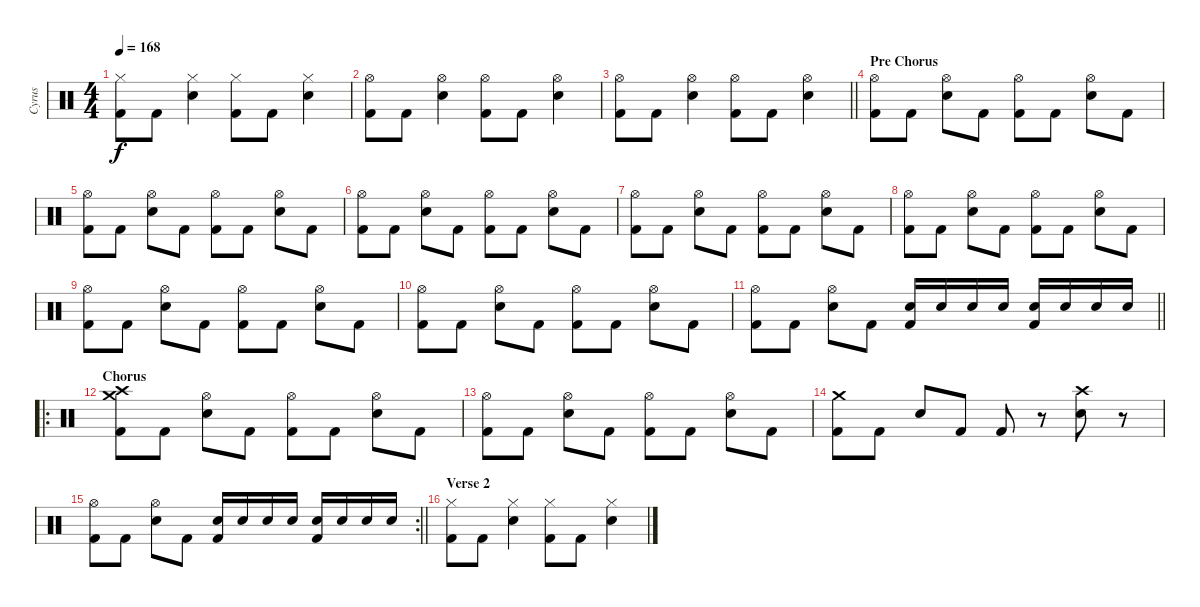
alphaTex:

\track ("Cyrus" "Cyrus") {instrument percussion}
\staff {score}
\articulation defaults
\ts (4 4)
\tempo 168
\clef neutral
\ks c
("Hi-Hat (closed)" "Kick (hit) 2").8{dy f} "Kick (hit) 2".8 ("Hi-Hat (closed)" "Snare (hit) 2").4 ("Hi-Hat (closed)" "Kick (hit) 2").8 "Kick (hit) 2".8 ("Hi-Hat (closed)" "Snare (hit) 2").4 |
("Hi-Hat (open)" "Kick (hit) 2").8 "Kick (hit) 2".8 ("Hi-Hat (open)" "Snare (hit) 2").4 ("Hi-Hat (open)" "Kick (hit) 2").8 "Kick (hit) 2".8 ("Hi-Hat (open)" "Snare (hit) 2").4 |
\barLineRight lightlight
("Hi-Hat (open)" "Kick (hit) 2").8 "Kick (hit) 2".8 ("Hi-Hat (open)" "Snare (hit) 2").4 ("Hi-Hat (open)" "Kick (hit) 2").8 "Kick (hit) 2".8 ("Hi-Hat (open)" "Snare (hit) 2").4 |
\section ("" "Pre Chorus")
("Hi-Hat (open)" "Kick (hit) 2").8 "Kick (hit) 2".8 ("Hi-Hat (open)" "Snare (hit) 2").8 "Kick (hit) 2".8 ("Hi-Hat (open)" "Kick (hit) 2").8 "Kick (hit) 2".8 ("Hi-Hat (open)" "Snare (hit) 2").8 "Kick (hit) 2".8 |
("Hi-Hat (open)" "Kick (hit) 2").8 "Kick (hit) 2".8 ("Hi-Hat (open)" "Snare (hit) 2").8 "Kick (hit) 2".8 ("Hi-Hat (open)" "Kick (hit) 2").8 "Kick (hit) 2".8 ("Hi-Hat (open)" "Snare (hit) 2").8 "Kick (hit) 2".8 |
("Hi-Hat (open)" "Kick (hit) 2").8 "Kick (hit) 2".8 ("Hi-Hat (open)" "Snare (hit) 2").8 "Kick (hit) 2".8 ("Hi-Hat (open)" "Kick (hit) 2").8 "Kick (hit) 2".8 ("Hi-Hat (open)" "Snare (hit) 2").8 "Kick (hit) 2".8 |
("Hi-Hat (open)" "Kick (hit) 2").8 "Kick (hit) 2".8 ("Hi-Hat (open)" "Snare (hit) 2").8 "Kick (hit) 2".8 ("Hi-Hat (open)" "Kick (hit) 2").8 "Kick (hit) 2".8 ("Hi-Hat (open)" "Snare (hit) 2").8 "Kick (hit) 2".8 |
("Hi-Hat (open)" "Kick (hit) 2").8 "Kick (hit) 2".8 ("Hi-Hat (open)" "Snare (hit) 2").8 "Kick (hit) 2".8 ("Hi-Hat (open)" "Kick (hit) 2").8 "Kick (hit) 2".8 ("Hi-Hat (open)" "Snare (hit) 2").8 "Kick (hit) 2".8 |
("Hi-Hat (open)" "Kick (hit) 2").8 "Kick (hit) 2".8 ("Hi-Hat (open)" "Snare (hit) 2").8 "Kick (hit) 2".8 ("Hi-Hat (open)" "Kick (hit) 2").8 "Kick (hit) 2".8 ("Hi-Hat (open)" "Snare (hit) 2").8 "Kick (hit) 2".8 |
("Hi-Hat (open)" "Kick (hit) 2").8 "Kick (hit) 2".8 ("Hi-Hat (open)" "Snare (hit) 2").8 "Kick (hit) 2".8 ("Hi-Hat (open)" "Kick (hit) 2").8 "Kick (hit) 2".8 ("Hi-Hat (open)" "Snare (hit) 2").8 "Kick (hit) 2".8 |
\barLineRight lightlight
("Hi-Hat (open)" "Kick (hit) 2").8 "Kick (hit) 2".8 ("Hi-Hat (open)" "Snare (hit) 2").8 "Kick (hit) 2".8 ("Snare (hit) 2" "Kick (hit) 2").16 "Snare (hit) 2".16 "Snare (hit) 2".16 "Snare (hit) 2".16 ("Snare (hit) 2" "Kick (hit) 2").16 "Snare (hit) 2".16 "Snare (hit) 2".16 "Snare (hit) 2".16 |
\ro
\section ("" "Chorus")
("Crash medium (hit)" "Crash high (hit)" "Kick (hit) 2").8 "Kick (hit) 2".8 ("Hi-Hat (open)" "Snare (hit) 2").8 "Kick (hit) 2".8 ("Hi-Hat (open)" "Kick (hit) 2").8 "Kick (hit) 2".8 ("Hi-Hat (open)" "Snare (hit) 2").8 "Kick (hit) 2".8 |
("Hi-Hat (open)" "Kick (hit) 2").8 "Kick (hit) 2".8 ("Hi-Hat (open)" "Snare (hit) 2").8 "Kick (hit) 2".8 ("Hi-Hat (open)" "Kick (hit) 2").8 "Kick (hit) 2".8 ("Hi-Hat (open)" "Snare (hit) 2").8 "Kick (hit) 2".8 |
("Crash medium (hit)" "Kick (hit) 2").8 "Kick (hit) 2".8 "Snare (hit) 2".8 "Kick (hit) 2".8 "Kick (hit) 2".8 r.8 ("Crash high (hit)" "Snare (hit) 2").8 r.8 |
\rc 2
\barLineRight lightlight
("Hi-Hat (open)" "Kick (hit) 2").8 "Kick (hit) 2".8 ("Hi-Hat (open)" "Snare (hit) 2").8 "Kick (hit) 2".8 ("Snare (hit) 2" "Kick (hit) 2").16 "Snare (hit) 2".16 "Snare (hit) 2".16 "Snare (hit) 2".16 ("Snare (hit) 2" "Kick (hit) 2").16 "Snare (hit) 2".16 "Snare (hit) 2".16 "Snare (hit) 2".16 |
\section ("" "Verse 2")
("Hi-Hat (closed)" "Kick (hit) 2").8 "Kick (hit) 2".8 ("Hi-Hat (closed)" "Snare (hit) 2").4 ("Hi-Hat (closed)" "Kick (hit) 2").8 "Kick (hit) 2".8 ("Hi-Hat (closed)" "Snare (hit) 2").4
